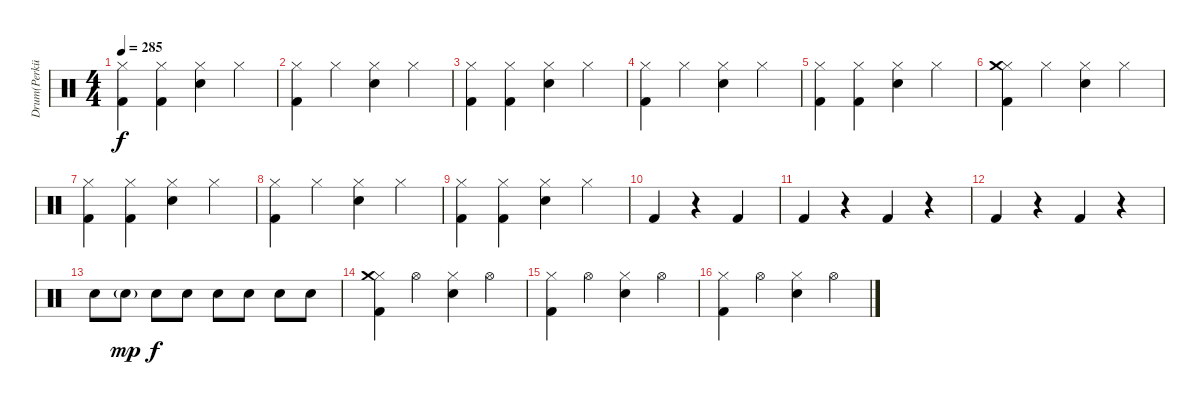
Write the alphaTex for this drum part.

\track ("Drum(Perküsyon)" "Drum(Perkü") {instrument percussion}
\staff {score}
\articulation defaults
\ts (4 4)
\tempo 285
\clef neutral
\ks c
("Hi-Hat (closed)" "Kick (hit) 2").4{dy f} ("Hi-Hat (closed)" "Kick (hit) 2").4 ("Hi-Hat (closed)" "Electric Snare (hit)").4 "Hi-Hat (closed)".4 |
("Hi-Hat (closed)" "Kick (hit) 2").4 "Hi-Hat (closed)".4 ("Hi-Hat (closed)" "Electric Snare (hit)").4 "Hi-Hat (closed)".4 |
("Hi-Hat (closed)" "Kick (hit) 2").4 ("Hi-Hat (closed)" "Kick (hit) 2").4 ("Hi-Hat (closed)" "Electric Snare (hit)").4 "Hi-Hat (closed)".4 |
("Hi-Hat (closed)" "Kick (hit) 2").4 "Hi-Hat (closed)".4 ("Hi-Hat (closed)" "Electric Snare (hit)").4 "Hi-Hat (closed)".4 |
("Hi-Hat (closed)" "Kick (hit) 2").4 ("Hi-Hat (closed)" "Kick (hit) 2").4 ("Hi-Hat (closed)" "Electric Snare (hit)").4 "Hi-Hat (closed)".4 |
("Hi-Hat (closed)" "Kick (hit) 2" "Crash medium (hit)").4 "Hi-Hat (closed)".4 ("Hi-Hat (closed)" "Electric Snare (hit)").4 "Hi-Hat (closed)".4 |
("Hi-Hat (closed)" "Kick (hit) 2").4 ("Hi-Hat (closed)" "Kick (hit) 2").4 ("Hi-Hat (closed)" "Electric Snare (hit)").4 "Hi-Hat (closed)".4 |
("Hi-Hat (closed)" "Kick (hit) 2").4 "Hi-Hat (closed)".4 ("Hi-Hat (closed)" "Electric Snare (hit)").4 "Hi-Hat (closed)".4 |
("Hi-Hat (closed)" "Kick (hit) 2").4 ("Hi-Hat (closed)" "Kick (hit) 2").4 ("Hi-Hat (closed)" "Electric Snare (hit)").4 "Hi-Hat (closed)".4 |
"Kick (hit) 2".4 r.4 "Kick (hit) 2".4 |
"Kick (hit) 2".4 r.4 "Kick (hit) 2".4 r.4 |
"Kick (hit) 2".4 r.4 "Kick (hit) 2".4 r.4 |
"Electric Snare (hit)".8 "Electric Snare (hit)"{g}.8{dy mp} "Electric Snare (hit)".8{dy f} "Electric Snare (hit)".8 "Electric Snare (hit)".8 "Electric Snare (hit)".8 "Electric Snare (hit)".8 "Electric Snare (hit)".8 |
("Hi-Hat (closed)" "Kick (hit) 2" "Crash medium (hit)").4 "Hi-Hat (open)".4 ("Hi-Hat (closed)" "Electric Snare (hit)").4 "Hi-Hat (open)".4 |
("Hi-Hat (closed)" "Kick (hit) 2").4 "Hi-Hat (open)".4 ("Hi-Hat (closed)" "Electric Snare (hit)").4 "Hi-Hat (open)".4 |
("Hi-Hat (closed)" "Kick (hit) 2").4 "Hi-Hat (open)".4 ("Hi-Hat (closed)" "Electric Snare (hit)").4 "Hi-Hat (open)".4
